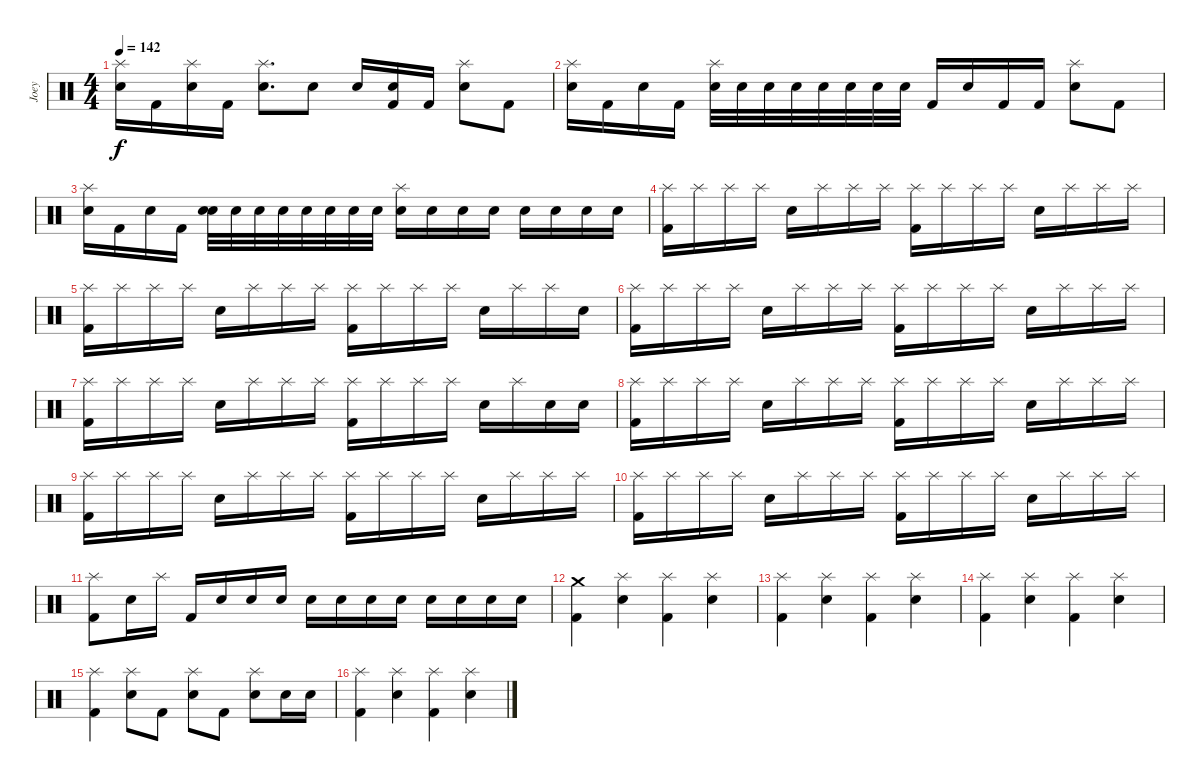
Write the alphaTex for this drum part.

\track ("Joey" "Joey") {instrument percussion}
\staff {score}
\articulation defaults
\ts (4 4)
\tempo 142
\clef neutral
\ks c
("Splash (hit)" "Snare (hit) 2").16{dy f} "Kick (hit) 2".16 ("Splash (hit)" "Snare (hit) 2").16 "Kick (hit) 2".16 ("Splash (hit)" "Snare (hit) 2").8{d} "Snare (hit) 2".8 "Snare (hit) 2".16 ("Snare (hit) 2" "Kick (hit) 2").16 "Kick (hit) 2".16 ("Splash (hit)" "Snare (hit) 2").8 "Kick (hit) 2".8 |
("Splash (hit)" "Snare (hit) 2").16 "Kick (hit) 2".16 "Snare (hit) 2".16 "Kick (hit) 2".16 ("Splash (hit)" "Snare (hit) 2").32{volume 5} "Snare (hit) 2".32 "Snare (hit) 2".32 "Snare (hit) 2".32 "Snare (hit) 2".32 "Snare (hit) 2".32 "Snare (hit) 2".32 "Snare (hit) 2".32 "Kick (hit) 2".16{volume 16} "Snare (hit) 2".16 "Kick (hit) 2".16 "Kick (hit) 2".16 ("Splash (hit)" "Snare (hit) 2").8 "Kick (hit) 2".8 |
("Splash (hit)" "Snare (hit) 2").16 "Kick (hit) 2".16 "Snare (hit) 2".16 "Kick (hit) 2".16 ("Snare (hit)" "Snare (hit) 2").32{volume 5} "Snare (hit) 2".32 "Snare (hit) 2".32 "Snare (hit) 2".32 "Snare (hit) 2".32 "Snare (hit) 2".32 "Snare (hit) 2".32 "Snare (hit) 2".32 ("Splash (hit)" "Snare (hit) 2").16{volume 16} "Snare (hit) 2".16 "Snare (hit) 2".16 "Snare (hit) 2".16 "Snare (hit) 2".16 "Snare (hit) 2".16 "Snare (hit) 2".16 "Snare (hit) 2".16 |
("Splash (hit)" "Kick (hit) 2").16 "Splash (hit)".16 "Splash (hit)".16 "Splash (hit)".16 "Snare (hit) 2".16 "Splash (hit)".16 "Splash (hit)".16 "Splash (hit)".16 ("Splash (hit)" "Kick (hit) 2").16 "Splash (hit)".16 "Splash (hit)".16 "Splash (hit)".16 "Snare (hit) 2".16 "Splash (hit)".16 "Splash (hit)".16 "Splash (hit)".16 |
("Splash (hit)" "Kick (hit) 2").16 "Splash (hit)".16 "Splash (hit)".16 "Splash (hit)".16 "Snare (hit) 2".16 "Splash (hit)".16 "Splash (hit)".16 "Splash (hit)".16 ("Splash (hit)" "Kick (hit) 2").16 "Splash (hit)".16 "Splash (hit)".16 "Splash (hit)".16 "Snare (hit) 2".16 "Splash (hit)".16 "Splash (hit)".16 "Snare (hit) 2".16 |
("Splash (hit)" "Kick (hit) 2").16 "Splash (hit)".16 "Splash (hit)".16 "Splash (hit)".16 "Snare (hit) 2".16 "Splash (hit)".16 "Splash (hit)".16 "Splash (hit)".16 ("Splash (hit)" "Kick (hit) 2").16 "Splash (hit)".16 "Splash (hit)".16 "Splash (hit)".16 "Snare (hit) 2".16 "Splash (hit)".16 "Splash (hit)".16 "Splash (hit)".16 |
("Splash (hit)" "Kick (hit) 2").16 "Splash (hit)".16 "Splash (hit)".16 "Splash (hit)".16 "Snare (hit) 2".16 "Splash (hit)".16 "Splash (hit)".16 "Splash (hit)".16 ("Splash (hit)" "Kick (hit) 2").16 "Splash (hit)".16 "Splash (hit)".16 "Splash (hit)".16 "Snare (hit) 2".16 "Splash (hit)".16 "Snare (hit) 2".16 "Snare (hit) 2".16 |
("Splash (hit)" "Kick (hit) 2").16 "Splash (hit)".16 "Splash (hit)".16 "Splash (hit)".16 "Snare (hit) 2".16 "Splash (hit)".16 "Splash (hit)".16 "Splash (hit)".16 ("Splash (hit)" "Kick (hit) 2").16 "Splash (hit)".16 "Splash (hit)".16 "Splash (hit)".16 "Snare (hit) 2".16 "Splash (hit)".16 "Splash (hit)".16 "Splash (hit)".16 |
("Splash (hit)" "Kick (hit) 2").16 "Splash (hit)".16 "Splash (hit)".16 "Splash (hit)".16 "Snare (hit) 2".16 "Splash (hit)".16 "Splash (hit)".16 "Splash (hit)".16 ("Splash (hit)" "Kick (hit) 2").16 "Splash (hit)".16 "Splash (hit)".16 "Splash (hit)".16 "Snare (hit) 2".16 "Splash (hit)".16 "Splash (hit)".16 "Splash (hit)".16 |
("Splash (hit)" "Kick (hit) 2").16 "Splash (hit)".16 "Splash (hit)".16 "Splash (hit)".16 "Snare (hit) 2".16 "Splash (hit)".16 "Splash (hit)".16 "Splash (hit)".16 ("Splash (hit)" "Kick (hit) 2").16 "Splash (hit)".16 "Splash (hit)".16 "Splash (hit)".16 "Snare (hit) 2".16 "Splash (hit)".16 "Splash (hit)".16 "Splash (hit)".16 |
("Splash (hit)" "Kick (hit) 2").8 "Snare (hit) 2".16 "Splash (hit)".16 "Kick (hit) 2".16 "Snare (hit) 2".16 "Snare (hit) 2".16 "Snare (hit) 2".16 "Snare (hit) 2".16 "Snare (hit) 2".16 "Snare (hit) 2".16 "Snare (hit) 2".16 "Snare (hit) 2".16 "Snare (hit) 2".16 "Snare (hit) 2".16 "Snare (hit) 2".16 |
("Crash medium (hit)" "Kick (hit) 2").4 ("Splash (hit)" "Snare (hit) 2").4 ("Splash (hit)" "Kick (hit) 2").4 ("Splash (hit)" "Snare (hit) 2").4 |
("Splash (hit)" "Kick (hit) 2").4 ("Splash (hit)" "Snare (hit) 2").4 ("Splash (hit)" "Kick (hit) 2").4 ("Splash (hit)" "Snare (hit) 2").4 |
("Splash (hit)" "Kick (hit) 2").4 ("Splash (hit)" "Snare (hit) 2").4 ("Splash (hit)" "Kick (hit) 2").4 ("Splash (hit)" "Snare (hit) 2").4 |
("Splash (hit)" "Kick (hit) 2").4 ("Splash (hit)" "Snare (hit) 2").8 "Kick (hit) 2".8 ("Splash (hit)" "Snare (hit) 2").8 "Kick (hit) 2".8 ("Splash (hit)" "Snare (hit) 2").8 "Snare (hit) 2".16 "Snare (hit) 2".16 |
("Splash (hit)" "Kick (hit) 2").4 ("Splash (hit)" "Snare (hit) 2").4 ("Splash (hit)" "Kick (hit) 2").4 ("Splash (hit)" "Snare (hit) 2").4
